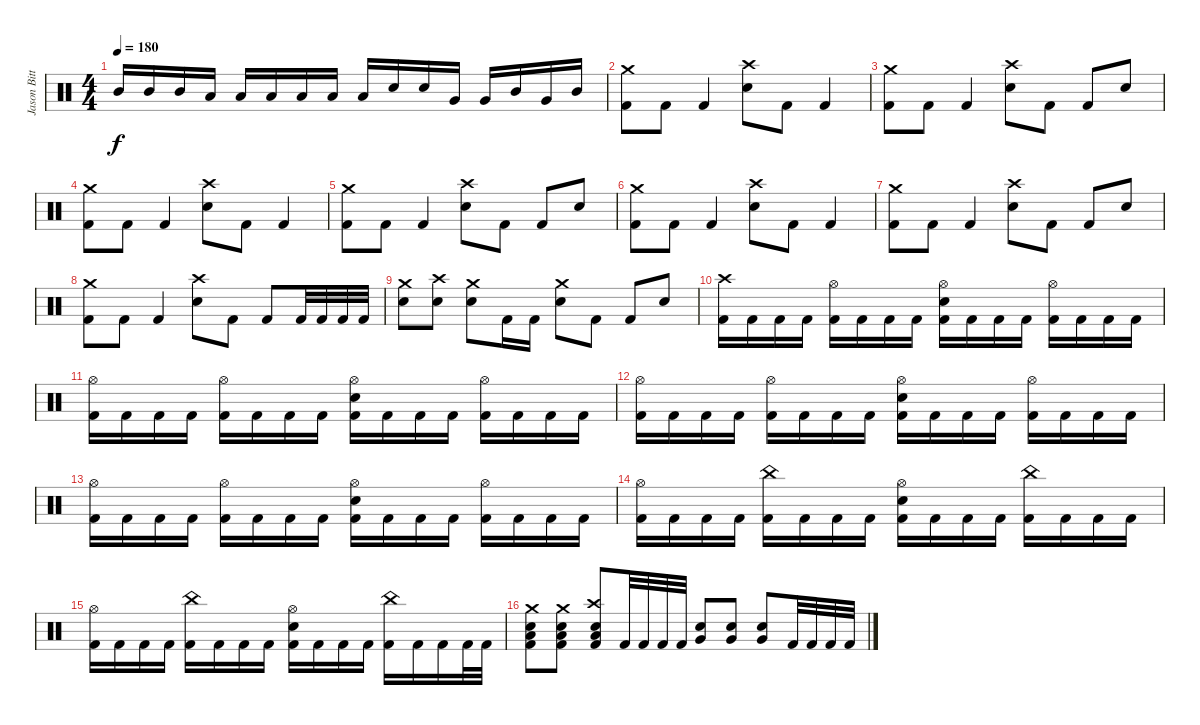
\track ("Jason Bittner" "Jason Bitt") {instrument percussion}
\staff {score}
\articulation defaults
\ts (4 4)
\tempo 180
\clef neutral
\ks c "Mid Tom (hit)".16{dy f} "Mid Tom (hit)".16 "Mid Tom (hit)".16 "Low Floor Tom (hit)".16 "Low Floor Tom (hit)".16 "Low Floor Tom (hit)".16 "Low Floor Tom (hit)".16 "Low Floor Tom (hit)".16 "Low Floor Tom (hit)".16 "Electric Snare (hit)".16 "Electric Snare (hit)".16 "Very Low Tom (hit)".16 "Very Low Tom (hit)".16 "Mid Tom (hit)".16 "Very Low Tom (hit)".16 "Mid Tom (hit)".16
|
("Crash medium (hit)" "Kick (hit) 2").8 "Kick (hit) 2".8 "Kick (hit) 2".4 ("Crash high (hit)" "Electric Snare (hit)").8 "Kick (hit) 2".8 "Kick (hit) 2".4 |
("Crash medium (hit)" "Kick (hit) 2").8 "Kick (hit) 2".8 "Kick (hit) 2".4 ("Crash high (hit)" "Electric Snare (hit)").8 "Kick (hit) 2".8 "Kick (hit) 2".8 "Electric Snare (hit)".8 |
("Crash medium (hit)" "Kick (hit) 2").8 "Kick (hit) 2".8 "Kick (hit) 2".4 ("Crash high (hit)" "Electric Snare (hit)").8 "Kick (hit) 2".8 "Kick (hit) 2".4 |
("Crash medium (hit)" "Kick (hit) 2").8 "Kick (hit) 2".8 "Kick (hit) 2".4 ("Crash high (hit)" "Electric Snare (hit)").8 "Kick (hit) 2".8 "Kick (hit) 2".8 "Electric Snare (hit)".8 |
("Crash medium (hit)" "Kick (hit) 2").8 "Kick (hit) 2".8 "Kick (hit) 2".4 ("Crash high (hit)" "Electric Snare (hit)").8 "Kick (hit) 2".8 "Kick (hit) 2".4 |
("Crash medium (hit)" "Kick (hit) 2").8 "Kick (hit) 2".8 "Kick (hit) 2".4 ("Crash high (hit)" "Electric Snare (hit)").8 "Kick (hit) 2".8 "Kick (hit) 2".8 "Electric Snare (hit)".8 |
("Crash medium (hit)" "Kick (hit) 2").8 "Kick (hit) 2".8 "Kick (hit) 2".4 ("Crash high (hit)" "Electric Snare (hit)").8 "Kick (hit) 2".8 "Kick (hit) 2".8 "Kick (hit) 2".32 "Kick (hit) 2".32 "Kick (hit) 2".32 "Kick (hit) 2".32 |
("Crash medium (hit)" "Electric Snare (hit)").8 ("Crash high (hit)" "Electric Snare (hit)").8 ("Crash medium (hit)" "Electric Snare (hit)").8 "Kick (hit) 2".16 "Kick (hit) 2".16 ("Crash medium (hit)" "Electric Snare (hit)").8 "Kick (hit) 2".8 "Kick (hit) 2".8 "Electric Snare (hit)".8 |
("Crash high (hit)" "Kick (hit) 2").16 "Kick (hit) 2".16 "Kick (hit) 2".16 "Kick (hit) 2".16 ("Hi-Hat (open)" "Kick (hit) 2").16 "Kick (hit) 2".16 "Kick (hit) 2".16 "Kick (hit) 2".16 ("Hi-Hat (open)" "Electric Snare (hit)" "Kick (hit) 2").16 "Kick (hit) 2".16 "Kick (hit) 2".16 "Kick (hit) 2".16 ("Hi-Hat (open)" "Kick (hit) 2").16 "Kick (hit) 2".16 "Kick (hit) 2".16 "Kick (hit) 2".16 |
("Hi-Hat (open)" "Kick (hit) 2").16 "Kick (hit) 2".16 "Kick (hit) 2".16 "Kick (hit) 2".16 ("Hi-Hat (open)" "Kick (hit) 2").16 "Kick (hit) 2".16 "Kick (hit) 2".16 "Kick (hit) 2".16 ("Hi-Hat (open)" "Electric Snare (hit)" "Kick (hit) 2").16 "Kick (hit) 2".16 "Kick (hit) 2".16 "Kick (hit) 2".16 ("Hi-Hat (open)" "Kick (hit) 2").16 "Kick (hit) 2".16 "Kick (hit) 2".16 "Kick (hit) 2".16 |
("Hi-Hat (open)" "Kick (hit) 2").16 "Kick (hit) 2".16 "Kick (hit) 2".16 "Kick (hit) 2".16 ("Hi-Hat (open)" "Kick (hit) 2").16 "Kick (hit) 2".16 "Kick (hit) 2".16 "Kick (hit) 2".16 ("Hi-Hat (open)" "Electric Snare (hit)" "Kick (hit) 2").16 "Kick (hit) 2".16 "Kick (hit) 2".16 "Kick (hit) 2".16 ("Hi-Hat (open)" "Kick (hit) 2").16 "Kick (hit) 2".16 "Kick (hit) 2".16 "Kick (hit) 2".16 |
("Hi-Hat (open)" "Kick (hit) 2").16 "Kick (hit) 2".16 "Kick (hit) 2".16 "Kick (hit) 2".16 ("Hi-Hat (open)" "Kick (hit) 2").16 "Kick (hit) 2".16 "Kick (hit) 2".16 "Kick (hit) 2".16 ("Hi-Hat (open)" "Electric Snare (hit)" "Kick (hit) 2").16 "Kick (hit) 2".16 "Kick (hit) 2".16 "Kick (hit) 2".16 ("Hi-Hat (open)" "Kick (hit) 2").16 "Kick (hit) 2".16 "Kick (hit) 2".16 "Kick (hit) 2".16 |
("Hi-Hat (open)" "Kick (hit) 2").16 "Kick (hit) 2".16 "Kick (hit) 2".16 "Kick (hit) 2".16 ("China (hit)" "Kick (hit) 2").16 "Kick (hit) 2".16 "Kick (hit) 2".16 "Kick (hit) 2".16 ("Hi-Hat (open)" "Electric Snare (hit)" "Kick (hit) 2").16 "Kick (hit) 2".16 "Kick (hit) 2".16 "Kick (hit) 2".16 ("China (hit)" "Kick (hit) 2").16 "Kick (hit) 2".16 "Kick (hit) 2".16 "Kick (hit) 2".16 |
("Hi-Hat (open)" "Kick (hit) 2").16 "Kick (hit) 2".16 "Kick (hit) 2".16 "Kick (hit) 2".16 ("China (hit)" "Kick (hit) 2").16 "Kick (hit) 2".16 "Kick (hit) 2".16 "Kick (hit) 2".16 ("Hi-Hat (open)" "Electric Snare (hit)" "Kick (hit) 2").16 "Kick (hit) 2".16 "Kick (hit) 2".16 "Kick (hit) 2".16 ("China (hit)" "Kick (hit) 2").16 "Kick (hit) 2".16 "Kick (hit) 2".16 "Kick (hit) 2".32 "Kick (hit) 2".32 |
("Crash medium (hit)" "Low Tom (hit)" "Electric Snare (hit)" "Kick (hit) 2").8 ("Crash medium (hit)" "Low Tom (hit)" "Electric Snare (hit)" "Kick (hit) 2").8 ("Crash high (hit)" "Low Tom (hit)" "Electric Snare (hit)" "Kick (hit) 2").8 "Kick (hit) 2".32 "Kick (hit) 2".32 "Kick (hit) 2".32 "Kick (hit) 2".32 ("Very Low Tom (hit)" "Electric Snare (hit)").8 ("Very Low Tom (hit)" "Electric Snare (hit)").8 ("Very Low Tom (hit)" "Electric Snare (hit)").8 "Kick (hit) 2".32 "Kick (hit) 2".32 "Kick (hit) 2".32 "Kick (hit) 2".32
